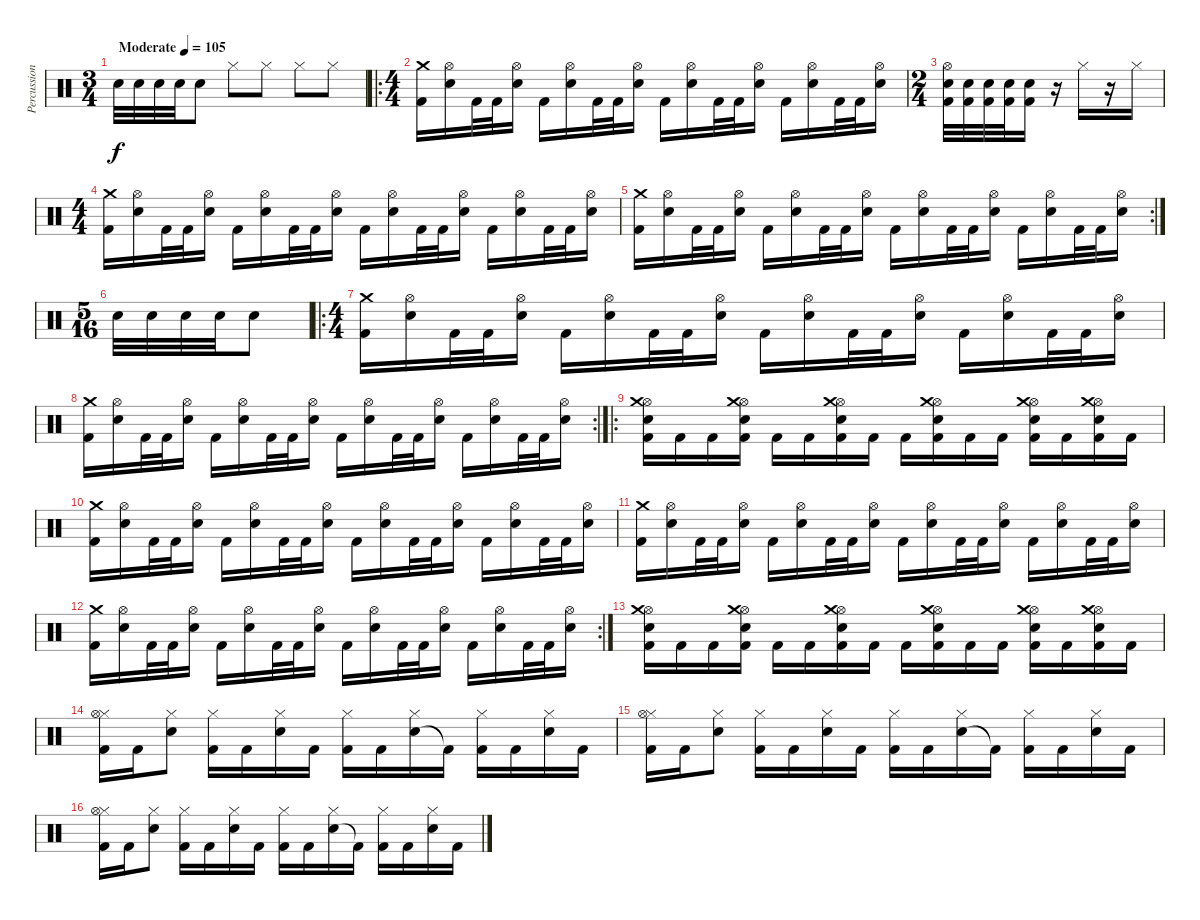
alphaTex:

\track ("Percussion" "Percussion") {instrument percussion}
\staff {score}
\articulation defaults
\ts (3 4)
\tempo (105 "Moderate")
\clef neutral
\ks c "Electric Snare (hit)".32{dy f} "Electric Snare (hit)".32 "Electric Snare (hit)".32 "Electric Snare (hit)".32 "Electric Snare (hit)".8 "Hi-Hat (closed)".8 "Hi-Hat (closed)".8 "Hi-Hat (closed)".8 "Hi-Hat (closed)".8
|
\ro
\ts (4 4)
("Kick (hit) 2" "Crash medium (hit)").16 ("Electric Snare (hit)" "Hi-Hat (open)").16 "Kick (hit) 2".32 "Kick (hit) 2".32 ("Electric Snare (hit)" "Hi-Hat (open)").16 "Kick (hit) 2".16 ("Electric Snare (hit)" "Hi-Hat (open)").16 "Kick (hit) 2".32 "Kick (hit) 2".32 ("Electric Snare (hit)" "Hi-Hat (open)").16 "Kick (hit) 2".16 ("Electric Snare (hit)" "Hi-Hat (open)").16 "Kick (hit) 2".32 "Kick (hit) 2".32 ("Electric Snare (hit)" "Hi-Hat (open)").16 "Kick (hit) 2".16 ("Electric Snare (hit)" "Hi-Hat (open)").16 "Kick (hit) 2".32 "Kick (hit) 2".32 ("Electric Snare (hit)" "Hi-Hat (open)").16 |
\ts (2 4)
("Kick (hit) 2" "Electric Snare (hit)" "Hi-Hat (open)").32 ("Kick (hit) 2" "Electric Snare (hit)").32 ("Kick (hit) 2" "Electric Snare (hit)").32 ("Kick (hit) 2" "Electric Snare (hit)").32 ("Kick (hit) 2" "Electric Snare (hit)").16 r.16 "Hi-Hat (closed)".16 r.16 "Hi-Hat (closed)".16 |
\ts (4 4)
("Kick (hit) 2" "Crash medium (hit)").16 ("Electric Snare (hit)" "Hi-Hat (open)").16 "Kick (hit) 2".32 "Kick (hit) 2".32 ("Electric Snare (hit)" "Hi-Hat (open)").16 "Kick (hit) 2".16 ("Electric Snare (hit)" "Hi-Hat (open)").16 "Kick (hit) 2".32 "Kick (hit) 2".32 ("Electric Snare (hit)" "Hi-Hat (open)").16 "Kick (hit) 2".16 ("Electric Snare (hit)" "Hi-Hat (open)").16 "Kick (hit) 2".32 "Kick (hit) 2".32 ("Electric Snare (hit)" "Hi-Hat (open)").16 "Kick (hit) 2".16 ("Electric Snare (hit)" "Hi-Hat (open)").16 "Kick (hit) 2".32 "Kick (hit) 2".32 ("Electric Snare (hit)" "Hi-Hat (open)").16 |
\rc 2
("Kick (hit) 2" "Crash medium (hit)").16 ("Electric Snare (hit)" "Hi-Hat (open)").16 "Kick (hit) 2".32 "Kick (hit) 2".32 ("Electric Snare (hit)" "Hi-Hat (open)").16 "Kick (hit) 2".16 ("Electric Snare (hit)" "Hi-Hat (open)").16 "Kick (hit) 2".32 "Kick (hit) 2".32 ("Electric Snare (hit)" "Hi-Hat (open)").16 "Kick (hit) 2".16 ("Electric Snare (hit)" "Hi-Hat (open)").16 "Kick (hit) 2".32 "Kick (hit) 2".32 ("Electric Snare (hit)" "Hi-Hat (open)").16 "Kick (hit) 2".16 ("Electric Snare (hit)" "Hi-Hat (open)").16 "Kick (hit) 2".32 "Kick (hit) 2".32 ("Electric Snare (hit)" "Hi-Hat (open)").16 |
\ts (5 16)
"Electric Snare (hit)".32 "Electric Snare (hit)".32 "Electric Snare (hit)".32 "Electric Snare (hit)".32 "Electric Snare (hit)".8 |
\ro
\ts (4 4)
("Kick (hit) 2" "Crash medium (hit)").16 ("Electric Snare (hit)" "Hi-Hat (open)").16 "Kick (hit) 2".32 "Kick (hit) 2".32 ("Electric Snare (hit)" "Hi-Hat (open)").16 "Kick (hit) 2".16 ("Electric Snare (hit)" "Hi-Hat (open)").16 "Kick (hit) 2".32 "Kick (hit) 2".32 ("Electric Snare (hit)" "Hi-Hat (open)").16 "Kick (hit) 2".16 ("Electric Snare (hit)" "Hi-Hat (open)").16 "Kick (hit) 2".32 "Kick (hit) 2".32 ("Electric Snare (hit)" "Hi-Hat (open)").16 "Kick (hit) 2".16 ("Electric Snare (hit)" "Hi-Hat (open)").16 "Kick (hit) 2".32 "Kick (hit) 2".32 ("Electric Snare (hit)" "Hi-Hat (open)").16 |
\rc 2
("Kick (hit) 2" "Crash medium (hit)").16 ("Electric Snare (hit)" "Hi-Hat (open)").16 "Kick (hit) 2".32 "Kick (hit) 2".32 ("Electric Snare (hit)" "Hi-Hat (open)").16 "Kick (hit) 2".16 ("Electric Snare (hit)" "Hi-Hat (open)").16 "Kick (hit) 2".32 "Kick (hit) 2".32 ("Electric Snare (hit)" "Hi-Hat (open)").16 "Kick (hit) 2".16 ("Electric Snare (hit)" "Hi-Hat (open)").16 "Kick (hit) 2".32 "Kick (hit) 2".32 ("Electric Snare (hit)" "Hi-Hat (open)").16 "Kick (hit) 2".16 ("Electric Snare (hit)" "Hi-Hat (open)").16 "Kick (hit) 2".32 "Kick (hit) 2".32 ("Electric Snare (hit)" "Hi-Hat (open)").16 |
\ro
("Electric Snare (hit)" "Hi-Hat (open)" "Crash medium (hit)" "Kick (hit) 2").16 "Kick (hit) 2".16 "Kick (hit) 2".16 ("Electric Snare (hit)" "Hi-Hat (open)" "Crash medium (hit)" "Kick (hit) 2").16 "Kick (hit) 2".16 "Kick (hit) 2".16 ("Electric Snare (hit)" "Hi-Hat (open)" "Crash medium (hit)" "Kick (hit) 2").16 "Kick (hit) 2".16 "Kick (hit) 2".16 ("Electric Snare (hit)" "Hi-Hat (open)" "Crash medium (hit)" "Kick (hit) 2").16 "Kick (hit) 2".16 "Kick (hit) 2".16 ("Electric Snare (hit)" "Hi-Hat (open)" "Crash medium (hit)" "Kick (hit) 2").16 "Kick (hit) 2".16 ("Electric Snare (hit)" "Hi-Hat (open)" "Crash medium (hit)" "Kick (hit) 2").16 "Kick (hit) 2".16 |
("Kick (hit) 2" "Crash medium (hit)").16 ("Electric Snare (hit)" "Hi-Hat (open)").16 "Kick (hit) 2".32 "Kick (hit) 2".32 ("Electric Snare (hit)" "Hi-Hat (open)").16 "Kick (hit) 2".16 ("Electric Snare (hit)" "Hi-Hat (open)").16 "Kick (hit) 2".32 "Kick (hit) 2".32 ("Electric Snare (hit)" "Hi-Hat (open)").16 "Kick (hit) 2".16 ("Electric Snare (hit)" "Hi-Hat (open)").16 "Kick (hit) 2".32 "Kick (hit) 2".32 ("Electric Snare (hit)" "Hi-Hat (open)").16 "Kick (hit) 2".16 ("Electric Snare (hit)" "Hi-Hat (open)").16 "Kick (hit) 2".32 "Kick (hit) 2".32 ("Electric Snare (hit)" "Hi-Hat (open)").16 |
("Kick (hit) 2" "Crash medium (hit)").16 ("Electric Snare (hit)" "Hi-Hat (open)").16 "Kick (hit) 2".32 "Kick (hit) 2".32 ("Electric Snare (hit)" "Hi-Hat (open)").16 "Kick (hit) 2".16 ("Electric Snare (hit)" "Hi-Hat (open)").16 "Kick (hit) 2".32 "Kick (hit) 2".32 ("Electric Snare (hit)" "Hi-Hat (open)").16 "Kick (hit) 2".16 ("Electric Snare (hit)" "Hi-Hat (open)").16 "Kick (hit) 2".32 "Kick (hit) 2".32 ("Electric Snare (hit)" "Hi-Hat (open)").16 "Kick (hit) 2".16 ("Electric Snare (hit)" "Hi-Hat (open)").16 "Kick (hit) 2".32 "Kick (hit) 2".32 ("Electric Snare (hit)" "Hi-Hat (open)").16 |
\rc 2
("Kick (hit) 2" "Crash medium (hit)").16 ("Electric Snare (hit)" "Hi-Hat (open)").16 "Kick (hit) 2".32 "Kick (hit) 2".32 ("Electric Snare (hit)" "Hi-Hat (open)").16 "Kick (hit) 2".16 ("Electric Snare (hit)" "Hi-Hat (open)").16 "Kick (hit) 2".32 "Kick (hit) 2".32 ("Electric Snare (hit)" "Hi-Hat (open)").16 "Kick (hit) 2".16 ("Electric Snare (hit)" "Hi-Hat (open)").16 "Kick (hit) 2".32 "Kick (hit) 2".32 ("Electric Snare (hit)" "Hi-Hat (open)").16 "Kick (hit) 2".16 ("Electric Snare (hit)" "Hi-Hat (open)").16 "Kick (hit) 2".32 "Kick (hit) 2".32 ("Electric Snare (hit)" "Hi-Hat (open)").16 |
("Electric Snare (hit)" "Hi-Hat (open)" "Crash medium (hit)" "Kick (hit) 2").16 "Kick (hit) 2".16 "Kick (hit) 2".16 ("Electric Snare (hit)" "Hi-Hat (open)" "Crash medium (hit)" "Kick (hit) 2").16 "Kick (hit) 2".16 "Kick (hit) 2".16 ("Electric Snare (hit)" "Hi-Hat (open)" "Crash medium (hit)" "Kick (hit) 2").16 "Kick (hit) 2".16 "Kick (hit) 2".16 ("Electric Snare (hit)" "Hi-Hat (open)" "Crash medium (hit)" "Kick (hit) 2").16 "Kick (hit) 2".16 "Kick (hit) 2".16 ("Electric Snare (hit)" "Hi-Hat (open)" "Crash medium (hit)" "Kick (hit) 2").16 "Kick (hit) 2".16 ("Electric Snare (hit)" "Hi-Hat (open)" "Crash medium (hit)" "Kick (hit) 2").16 "Kick (hit) 2".16 |
("Kick (hit) 2" "Hi-Hat (closed)" "Hi-Hat (open)").16 "Kick (hit) 2".16 ("Electric Snare (hit)" "Hi-Hat (closed)").8 ("Kick (hit) 2" "Hi-Hat (closed)").16 "Kick (hit) 2".16 ("Electric Snare (hit)" "Hi-Hat (closed)").16 "Kick (hit) 2".16 ("Kick (hit) 2" "Hi-Hat (closed)").16 "Kick (hit) 2".16 ("Electric Snare (hit)" "Hi-Hat (closed)").16 "Kick (hit) 2"{t}.16 ("Kick (hit) 2" "Hi-Hat (closed)").16 "Kick (hit) 2".16 ("Electric Snare (hit)" "Hi-Hat (closed)").16 "Kick (hit) 2".16 |
("Kick (hit) 2" "Hi-Hat (closed)" "Hi-Hat (open)").16 "Kick (hit) 2".16 ("Electric Snare (hit)" "Hi-Hat (closed)").8 ("Kick (hit) 2" "Hi-Hat (closed)").16 "Kick (hit) 2".16 ("Electric Snare (hit)" "Hi-Hat (closed)").16 "Kick (hit) 2".16 ("Kick (hit) 2" "Hi-Hat (closed)").16 "Kick (hit) 2".16 ("Electric Snare (hit)" "Hi-Hat (closed)").16 "Kick (hit) 2"{t}.16 ("Kick (hit) 2" "Hi-Hat (closed)").16 "Kick (hit) 2".16 ("Electric Snare (hit)" "Hi-Hat (closed)").16 "Kick (hit) 2".16 |
("Kick (hit) 2" "Hi-Hat (closed)" "Hi-Hat (open)").16 "Kick (hit) 2".16 ("Electric Snare (hit)" "Hi-Hat (closed)").8 ("Kick (hit) 2" "Hi-Hat (closed)").16 "Kick (hit) 2".16 ("Electric Snare (hit)" "Hi-Hat (closed)").16 "Kick (hit) 2".16 ("Kick (hit) 2" "Hi-Hat (closed)").16 "Kick (hit) 2".16 ("Electric Snare (hit)" "Hi-Hat (closed)").16 "Kick (hit) 2"{t}.16 ("Kick (hit) 2" "Hi-Hat (closed)").16 "Kick (hit) 2".16 ("Electric Snare (hit)" "Hi-Hat (closed)").16 "Kick (hit) 2".16
